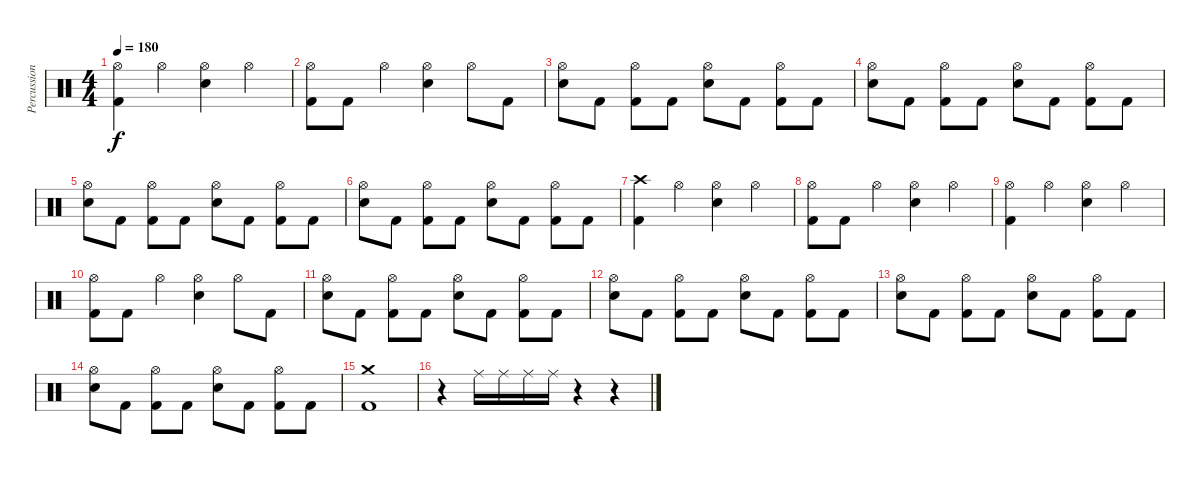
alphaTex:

\track ("Percussion" "Percussion") {instrument percussion}
\staff {score}
\articulation defaults
\ts (4 4)
\tempo 180
\clef neutral
\ks c
("Hi-Hat (open)" "Kick (hit) 2").4{dy f} "Hi-Hat (open)".4 ("Hi-Hat (open)" "Electric Snare (hit)").4 "Hi-Hat (open)".4 |
("Hi-Hat (open)" "Kick (hit) 2").8 "Kick (hit) 2".8 "Hi-Hat (open)".4 ("Hi-Hat (open)" "Electric Snare (hit)").4 "Hi-Hat (open)".8 "Kick (hit) 2".8 |
("Hi-Hat (open)" "Electric Snare (hit)").8 "Kick (hit) 2".8 ("Hi-Hat (open)" "Kick (hit) 2").8 "Kick (hit) 2".8 ("Hi-Hat (open)" "Electric Snare (hit)").8 "Kick (hit) 2".8 ("Hi-Hat (open)" "Kick (hit) 2").8 "Kick (hit) 2".8 |
("Hi-Hat (open)" "Electric Snare (hit)").8 "Kick (hit) 2".8 ("Hi-Hat (open)" "Kick (hit) 2").8 "Kick (hit) 2".8 ("Hi-Hat (open)" "Electric Snare (hit)").8 "Kick (hit) 2".8 ("Hi-Hat (open)" "Kick (hit) 2").8 "Kick (hit) 2".8 |
("Hi-Hat (open)" "Electric Snare (hit)").8 "Kick (hit) 2".8 ("Hi-Hat (open)" "Kick (hit) 2").8 "Kick (hit) 2".8 ("Hi-Hat (open)" "Electric Snare (hit)").8 "Kick (hit) 2".8 ("Hi-Hat (open)" "Kick (hit) 2").8 "Kick (hit) 2".8 |
("Hi-Hat (open)" "Electric Snare (hit)").8 "Kick (hit) 2".8 ("Hi-Hat (open)" "Kick (hit) 2").8 "Kick (hit) 2".8 ("Hi-Hat (open)" "Electric Snare (hit)").8 "Kick (hit) 2".8 ("Hi-Hat (open)" "Kick (hit) 2").8 "Kick (hit) 2".8 |
("Crash high (hit)" "Kick (hit) 2").4 "Hi-Hat (open)".4 ("Hi-Hat (open)" "Electric Snare (hit)").4 "Hi-Hat (open)".4 |
("Hi-Hat (open)" "Kick (hit) 2").8 "Kick (hit) 2".8 "Hi-Hat (open)".4 ("Hi-Hat (open)" "Electric Snare (hit)").4 "Hi-Hat (open)".4 |
("Hi-Hat (open)" "Kick (hit) 2").4 "Hi-Hat (open)".4 ("Hi-Hat (open)" "Electric Snare (hit)").4 "Hi-Hat (open)".4 |
("Hi-Hat (open)" "Kick (hit) 2").8 "Kick (hit) 2".8 "Hi-Hat (open)".4 ("Hi-Hat (open)" "Electric Snare (hit)").4 "Hi-Hat (open)".8 "Kick (hit) 2".8 |
("Hi-Hat (open)" "Electric Snare (hit)").8 "Kick (hit) 2".8 ("Hi-Hat (open)" "Kick (hit) 2").8 "Kick (hit) 2".8 ("Hi-Hat (open)" "Electric Snare (hit)").8 "Kick (hit) 2".8 ("Hi-Hat (open)" "Kick (hit) 2").8 "Kick (hit) 2".8 |
("Hi-Hat (open)" "Electric Snare (hit)").8 "Kick (hit) 2".8 ("Hi-Hat (open)" "Kick (hit) 2").8 "Kick (hit) 2".8 ("Hi-Hat (open)" "Electric Snare (hit)").8 "Kick (hit) 2".8 ("Hi-Hat (open)" "Kick (hit) 2").8 "Kick (hit) 2".8 |
("Hi-Hat (open)" "Electric Snare (hit)").8 "Kick (hit) 2".8 ("Hi-Hat (open)" "Kick (hit) 2").8 "Kick (hit) 2".8 ("Hi-Hat (open)" "Electric Snare (hit)").8 "Kick (hit) 2".8 ("Hi-Hat (open)" "Kick (hit) 2").8 "Kick (hit) 2".8 |
("Hi-Hat (open)" "Electric Snare (hit)").8 "Kick (hit) 2".8 ("Hi-Hat (open)" "Kick (hit) 2").8 "Kick (hit) 2".8 ("Hi-Hat (open)" "Electric Snare (hit)").8 "Kick (hit) 2".8 ("Hi-Hat (open)" "Kick (hit) 2").8 "Kick (hit) 2".8 |
("Crash medium (hit)" "Kick (hit) 2").1 |
r.4 "Ride (middle)".16 "Ride (middle)".16 "Ride (middle)".16 "Ride (middle)".16 r.4 r.4
